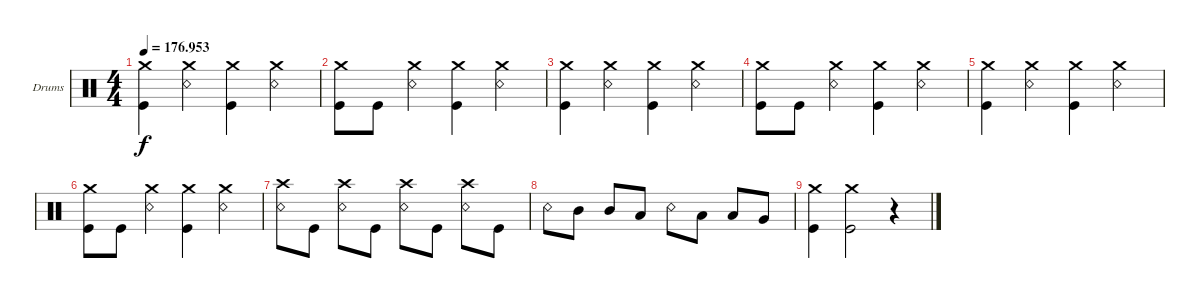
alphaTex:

\defaultSystemsLayout 4
\bracketExtendMode groupsimilarinstruments
\firstSystemTrackNameOrientation horizontal
\otherSystemsTrackNameOrientation horizontal
\track ("Christopher" "Drums") {instrument percussion}
\staff {score}
\articulation defaults
\ts (4 4)
\tempo
176.953
\accidentals auto
\clef neutral
\ottava regular
\simile none
\ks c
("Kick (hit)" "Crash medium (hit)").4{dy f} ("Snare (rim shot)" "Crash medium (hit)").4 ("Kick (hit)" "Crash medium (hit)").4 ("Snare (rim shot)" "Crash medium (hit)").4 |
("Kick (hit)" "Crash medium (hit)").8 "Kick (hit)".8 ("Snare (rim shot)" "Crash medium (hit)").4 ("Kick (hit)" "Crash medium (hit)").4 ("Snare (rim shot)" "Crash medium (hit)").4 |
("Kick (hit)" "Crash medium (hit)").4 ("Snare (rim shot)" "Crash medium (hit)").4 ("Kick (hit)" "Crash medium (hit)").4 ("Snare (rim shot)" "Crash medium (hit)").4 |
("Kick (hit)" "Crash medium (hit)").8 "Kick (hit)".8 ("Snare (rim shot)" "Crash medium (hit)").4 ("Kick (hit)" "Crash medium (hit)").4 ("Snare (rim shot)" "Crash medium (hit)").4 |
("Kick (hit)" "Crash medium (hit)").4 ("Snare (rim shot)" "Crash medium (hit)").4 ("Kick (hit)" "Crash medium (hit)").4 ("Snare (rim shot)" "Crash medium (hit)").4 |
("Kick (hit)" "Crash medium (hit)").8 "Kick (hit)".8 ("Snare (rim shot)" "Crash medium (hit)").4 ("Kick (hit)" "Crash medium (hit)").4 ("Snare (rim shot)" "Crash medium (hit)").4 |
("Crash high (hit)" "Snare (rim shot)").8 "Kick (hit)".8 ("Crash high (hit)" "Snare (rim shot)").8 "Kick (hit)".8 ("Crash high (hit)" "Snare (rim shot)").8 "Kick (hit)".8 ("Snare (rim shot)" "Crash high (hit)").8 "Kick (hit)".8 |
"Snare (rim shot)".8 "Mid Tom (hit)".8 "Mid Tom (hit)".8 "Low Tom (hit)".8 "Snare (rim shot)".8 "Low Tom (hit)".8 "Low Tom (hit)".8 "Very Low Tom (hit)".8 |
("Kick (hit)" "Crash medium (hit)").4 ("Kick (hit)" "Crash medium (hit)").2 r.4
